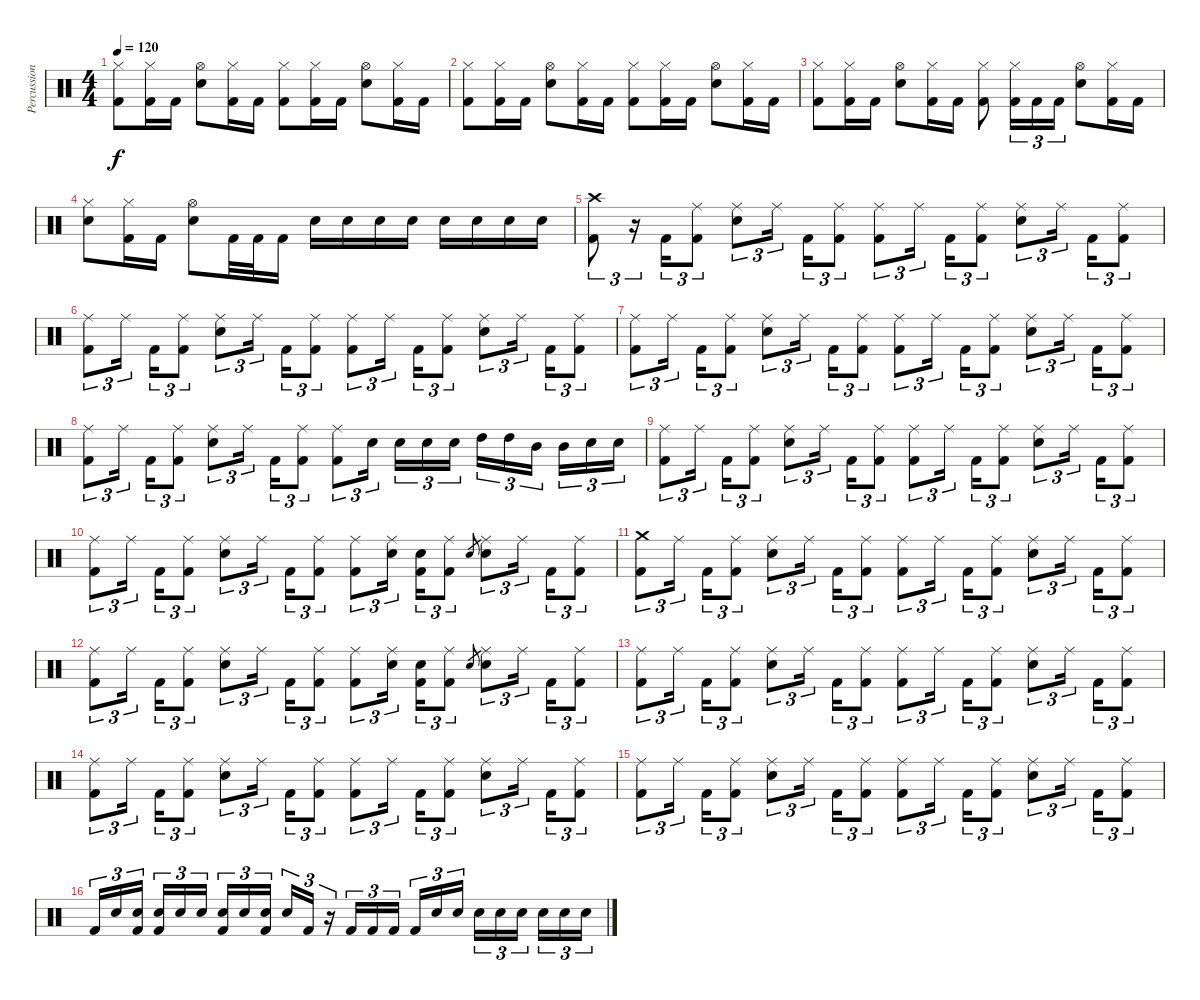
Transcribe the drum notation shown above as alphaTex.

\track ("Percussions" "Percussion") {instrument percussion}
\staff {score}
\articulation defaults
\ts (4 4)
\tempo 120
\clef neutral
\ks c
("Hi-Hat (closed)" "Kick (hit) 2").8{dy f} ("Hi-Hat (closed)" "Kick (hit) 2").16 "Kick (hit) 2".16 ("Hi-Hat (open)" "Electric Snare (hit)").8 ("Hi-Hat (closed)" "Kick (hit) 2").16 "Kick (hit) 2".16 ("Hi-Hat (closed)" "Kick (hit) 2").8 ("Hi-Hat (closed)" "Kick (hit) 2").16 "Kick (hit) 2".16 ("Hi-Hat (open)" "Electric Snare (hit)").8 ("Hi-Hat (closed)" "Kick (hit) 2").16 "Kick (hit) 2".16 |
("Hi-Hat (closed)" "Kick (hit) 2").8 ("Hi-Hat (closed)" "Kick (hit) 2").16 "Kick (hit) 2".16 ("Hi-Hat (open)" "Electric Snare (hit)").8 ("Hi-Hat (closed)" "Kick (hit) 2").16 "Kick (hit) 2".16 ("Hi-Hat (closed)" "Kick (hit) 2").8 ("Hi-Hat (closed)" "Kick (hit) 2").16 "Kick (hit) 2".16 ("Hi-Hat (open)" "Electric Snare (hit)").8 ("Hi-Hat (closed)" "Kick (hit) 2").16 "Kick (hit) 2".16 |
("Hi-Hat (closed)" "Kick (hit) 2").8 ("Hi-Hat (closed)" "Kick (hit) 2").16 "Kick (hit) 2".16 ("Hi-Hat (open)" "Electric Snare (hit)").8 ("Hi-Hat (closed)" "Kick (hit) 2").16 "Kick (hit) 2".16 ("Hi-Hat (closed)" "Kick (hit) 2").8 ("Hi-Hat (closed)" "Kick (hit) 2").16{tu (3 2)} "Kick (hit) 2".16{tu (3 2)} "Kick (hit) 2".16{tu (3 2)} ("Hi-Hat (open)" "Electric Snare (hit)").8 ("Hi-Hat (closed)" "Kick (hit) 2").16 "Kick (hit) 2".16 |
("Hi-Hat (closed)" "Electric Snare (hit)").8 ("Hi-Hat (closed)" "Kick (hit) 2").16 "Kick (hit) 2".16 ("Hi-Hat (open)" "Electric Snare (hit)").8 "Kick (hit) 2".32 "Kick (hit) 2".32 "Kick (hit) 2".16 "Electric Snare (hit)".16 "Electric Snare (hit)".16 "Electric Snare (hit)".16 "Electric Snare (hit)".16 "Electric Snare (hit)".16 "Electric Snare (hit)".16 "Electric Snare (hit)".16 "Electric Snare (hit)".16 |
("Crash high (hit)" "Kick (hit) 2").8{tu (3 2)} r.16{tu (3 2)} "Kick (hit) 2".16{tu (3 2)} ("Ride (middle)" "Kick (hit) 2").8{tu (3 2)} ("Ride (middle)" "Electric Snare (hit)").8{tu (3 2)} "Ride (middle)".16{tu (3 2)} "Kick (hit) 2".16{tu (3 2)} ("Ride (middle)" "Kick (hit) 2").8{tu (3 2)} ("Ride (middle)" "Kick (hit) 2").8{tu (3 2)} "Ride (middle)".16{tu (3 2)} "Kick (hit) 2".16{tu (3 2)} ("Ride (middle)" "Kick (hit) 2").8{tu (3 2)} ("Ride (middle)" "Electric Snare (hit)").8{tu (3 2)} "Ride (middle)".16{tu (3 2)} "Kick (hit) 2".16{tu (3 2)} ("Ride (middle)" "Kick (hit) 2").8{tu (3 2)} |
("Ride (middle)" "Kick (hit) 2").8{tu (3 2)} "Ride (middle)".16{tu (3 2)} "Kick (hit) 2".16{tu (3 2)} ("Ride (middle)" "Kick (hit) 2").8{tu (3 2)} ("Ride (middle)" "Electric Snare (hit)").8{tu (3 2)} "Ride (middle)".16{tu (3 2)} "Kick (hit) 2".16{tu (3 2)} ("Ride (middle)" "Kick (hit) 2").8{tu (3 2)} ("Ride (middle)" "Kick (hit) 2").8{tu (3 2)} "Ride (middle)".16{tu (3 2)} "Kick (hit) 2".16{tu (3 2)} ("Ride (middle)" "Kick (hit) 2").8{tu (3 2)} ("Ride (middle)" "Electric Snare (hit)").8{tu (3 2)} "Ride (middle)".16{tu (3 2)} "Kick (hit) 2".16{tu (3 2)} ("Ride (middle)" "Kick (hit) 2").8{tu (3 2)} |
("Ride (middle)" "Kick (hit) 2").8{tu (3 2)} "Ride (middle)".16{tu (3 2)} "Kick (hit) 2".16{tu (3 2)} ("Ride (middle)" "Kick (hit) 2").8{tu (3 2)} ("Ride (middle)" "Electric Snare (hit)").8{tu (3 2)} "Ride (middle)".16{tu (3 2)} "Kick (hit) 2".16{tu (3 2)} ("Ride (middle)" "Kick (hit) 2").8{tu (3 2)} ("Ride (middle)" "Kick (hit) 2").8{tu (3 2)} "Ride (middle)".16{tu (3 2)} "Kick (hit) 2".16{tu (3 2)} ("Ride (middle)" "Kick (hit) 2").8{tu (3 2)} ("Ride (middle)" "Electric Snare (hit)").8{tu (3 2)} "Ride (middle)".16{tu (3 2)} "Kick (hit) 2".16{tu (3 2)} ("Ride (middle)" "Kick (hit) 2").8{tu (3 2)} |
("Ride (middle)" "Kick (hit) 2").8{tu (3 2)} "Ride (middle)".16{tu (3 2)} "Kick (hit) 2".16{tu (3 2)} ("Ride (middle)" "Kick (hit) 2").8{tu (3 2)} ("Ride (middle)" "Electric Snare (hit)").8{tu (3 2)} "Ride (middle)".16{tu (3 2)} "Kick (hit) 2".16{tu (3 2)} ("Ride (middle)" "Kick (hit) 2").8{tu (3 2)} ("Ride (middle)" "Kick (hit) 2").8{tu (3 2)} "Electric Snare (hit)".16{tu (3 2)} "Electric Snare (hit)".16{tu (3 2)} "Electric Snare (hit)".16{tu (3 2)} "Electric Snare (hit)".16{tu (3 2)} "High Tom (hit)".16{tu (3 2)} "High Tom (hit)".16{tu (3 2)} "Mid Tom (hit)".16{tu (3 2)} "Mid Tom (hit)".16{tu (3 2)} "Electric Snare (hit)".16{tu (3 2)} "Electric Snare (hit)".16{tu (3 2)} |
("Ride (middle)" "Kick (hit) 2").8{tu (3 2)} "Ride (middle)".16{tu (3 2)} "Kick (hit) 2".16{tu (3 2)} ("Ride (middle)" "Kick (hit) 2").8{tu (3 2)} ("Ride (middle)" "Electric Snare (hit)").8{tu (3 2)} "Ride (middle)".16{tu (3 2)} "Kick (hit) 2".16{tu (3 2)} ("Ride (middle)" "Kick (hit) 2").8{tu (3 2)} ("Ride (middle)" "Kick (hit) 2").8{tu (3 2)} "Ride (middle)".16{tu (3 2)} "Kick (hit) 2".16{tu (3 2)} ("Ride (middle)" "Kick (hit) 2").8{tu (3 2)} ("Ride (middle)" "Electric Snare (hit)").8{tu (3 2)} "Ride (middle)".16{tu (3 2)} "Kick (hit) 2".16{tu (3 2)} ("Ride (middle)" "Kick (hit) 2").8{tu (3 2)} |
("Ride (middle)" "Kick (hit) 2").8{tu (3 2)} "Ride (middle)".16{tu (3 2)} "Kick (hit) 2".16{tu (3 2)} ("Ride (middle)" "Kick (hit) 2").8{tu (3 2)} ("Ride (middle)" "Electric Snare (hit)").8{tu (3 2)} "Ride (middle)".16{tu (3 2)} "Kick (hit) 2".16{tu (3 2)} ("Ride (middle)" "Kick (hit) 2").8{tu (3 2)} ("Ride (middle)" "Kick (hit) 2").8{tu (3 2)} ("Ride (middle)" "Electric Snare (hit)").16{tu (3 2)} ("Electric Snare (hit)" "Kick (hit) 2").16{tu (3 2)} ("Ride (middle)" "Kick (hit) 2").8{tu (3 2)} "Electric Snare (hit)".8{gr} ("Ride (middle)" "Electric Snare (hit)").8{tu (3 2)} "Ride (middle)".16{tu (3 2)} "Kick (hit) 2".16{tu (3 2)} ("Ride (middle)" "Kick (hit) 2").8{tu (3 2)} |
("Crash medium (hit)" "Kick (hit) 2").8{tu (3 2)} "Ride (middle)".16{tu (3 2)} "Kick (hit) 2".16{tu (3 2)} ("Ride (middle)" "Kick (hit) 2").8{tu (3 2)} ("Ride (middle)" "Electric Snare (hit)").8{tu (3 2)} "Ride (middle)".16{tu (3 2)} "Kick (hit) 2".16{tu (3 2)} ("Ride (middle)" "Kick (hit) 2").8{tu (3 2)} ("Ride (middle)" "Kick (hit) 2").8{tu (3 2)} "Ride (middle)".16{tu (3 2)} "Kick (hit) 2".16{tu (3 2)} ("Ride (middle)" "Kick (hit) 2").8{tu (3 2)} ("Ride (middle)" "Electric Snare (hit)").8{tu (3 2)} "Ride (middle)".16{tu (3 2)} "Kick (hit) 2".16{tu (3 2)} ("Ride (middle)" "Kick (hit) 2").8{tu (3 2)} |
("Ride (middle)" "Kick (hit) 2").8{tu (3 2)} "Ride (middle)".16{tu (3 2)} "Kick (hit) 2".16{tu (3 2)} ("Ride (middle)" "Kick (hit) 2").8{tu (3 2)} ("Ride (middle)" "Electric Snare (hit)").8{tu (3 2)} "Ride (middle)".16{tu (3 2)} "Kick (hit) 2".16{tu (3 2)} ("Ride (middle)" "Kick (hit) 2").8{tu (3 2)} ("Ride (middle)" "Kick (hit) 2").8{tu (3 2)} ("Ride (middle)" "Electric Snare (hit)").16{tu (3 2)} ("Electric Snare (hit)" "Kick (hit) 2").16{tu (3 2)} ("Ride (middle)" "Kick (hit) 2").8{tu (3 2)} "Electric Snare (hit)".8{gr} ("Ride (middle)" "Electric Snare (hit)").8{tu (3 2)} "Ride (middle)".16{tu (3 2)} "Kick (hit) 2".16{tu (3 2)} ("Ride (middle)" "Kick (hit) 2").8{tu (3 2)} |
("Ride (middle)" "Kick (hit) 2").8{tu (3 2)} "Ride (middle)".16{tu (3 2)} "Kick (hit) 2".16{tu (3 2)} ("Ride (middle)" "Kick (hit) 2").8{tu (3 2)} ("Ride (middle)" "Electric Snare (hit)").8{tu (3 2)} "Ride (middle)".16{tu (3 2)} "Kick (hit) 2".16{tu (3 2)} ("Ride (middle)" "Kick (hit) 2").8{tu (3 2)} ("Ride (middle)" "Kick (hit) 2").8{tu (3 2)} "Ride (middle)".16{tu (3 2)} "Kick (hit) 2".16{tu (3 2)} ("Ride (middle)" "Kick (hit) 2").8{tu (3 2)} ("Ride (middle)" "Electric Snare (hit)").8{tu (3 2)} "Ride (middle)".16{tu (3 2)} "Kick (hit) 2".16{tu (3 2)} ("Ride (middle)" "Kick (hit) 2").8{tu (3 2)} |
("Ride (middle)" "Kick (hit) 2").8{tu (3 2)} "Ride (middle)".16{tu (3 2)} "Kick (hit) 2".16{tu (3 2)} ("Ride (middle)" "Kick (hit) 2").8{tu (3 2)} ("Ride (middle)" "Electric Snare (hit)").8{tu (3 2)} "Ride (middle)".16{tu (3 2)} "Kick (hit) 2".16{tu (3 2)} ("Ride (middle)" "Kick (hit) 2").8{tu (3 2)} ("Ride (middle)" "Kick (hit) 2").8{tu (3 2)} "Ride (middle)".16{tu (3 2)} "Kick (hit) 2".16{tu (3 2)} ("Ride (middle)" "Kick (hit) 2").8{tu (3 2)} ("Ride (middle)" "Electric Snare (hit)").8{tu (3 2)} "Ride (middle)".16{tu (3 2)} "Kick (hit) 2".16{tu (3 2)} ("Ride (middle)" "Kick (hit) 2").8{tu (3 2)} |
("Ride (middle)" "Kick (hit) 2").8{tu (3 2)} "Ride (middle)".16{tu (3 2)} "Kick (hit) 2".16{tu (3 2)} ("Ride (middle)" "Kick (hit) 2").8{tu (3 2)} ("Ride (middle)" "Electric Snare (hit)").8{tu (3 2)} "Ride (middle)".16{tu (3 2)} "Kick (hit) 2".16{tu (3 2)} ("Ride (middle)" "Kick (hit) 2").8{tu (3 2)} ("Ride (middle)" "Kick (hit) 2").8{tu (3 2)} "Ride (middle)".16{tu (3 2)} "Kick (hit) 2".16{tu (3 2)} ("Ride (middle)" "Kick (hit) 2").8{tu (3 2)} ("Ride (middle)" "Electric Snare (hit)").8{tu (3 2)} "Ride (middle)".16{tu (3 2)} "Kick (hit) 2".16{tu (3 2)} ("Ride (middle)" "Kick (hit) 2").8{tu (3 2)} |
"Kick (hit) 2".16{tu (3 2)} "Electric Snare (hit)".16{tu (3 2)} ("Electric Snare (hit)" "Kick (hit) 2").16{tu (3 2)} ("Electric Snare (hit)" "Kick (hit) 2").16{tu (3 2)} "Electric Snare (hit)".16{tu (3 2)} "Electric Snare (hit)".16{tu (3 2)} ("Electric Snare (hit)" "Kick (hit) 2").16{tu (3 2)} "Electric Snare (hit)".16{tu (3 2)} ("Electric Snare (hit)" "Kick (hit) 2").16{tu (3 2)} "Electric Snare (hit)".16{tu (3 2)} "Kick (hit) 2".16{tu (3 2)} r.16{tu (3 2)} "Kick (hit) 2".16{tu (3 2)} "Kick (hit) 2".16{tu (3 2)} "Kick (hit) 2".16{tu (3 2)} "Kick (hit) 2".16{tu (3 2)} "Electric Snare (hit)".16{tu (3 2)} "Electric Snare (hit)".16{tu (3 2)} "Electric Snare (hit)".16{tu (3 2)} "Electric Snare (hit)".16{tu (3 2)} "Electric Snare (hit)".16{tu (3 2)} "Electric Snare (hit)".16{tu (3 2)} "Electric Snare (hit)".16{tu (3 2)} "Electric Snare (hit)".16{tu (3 2)}
